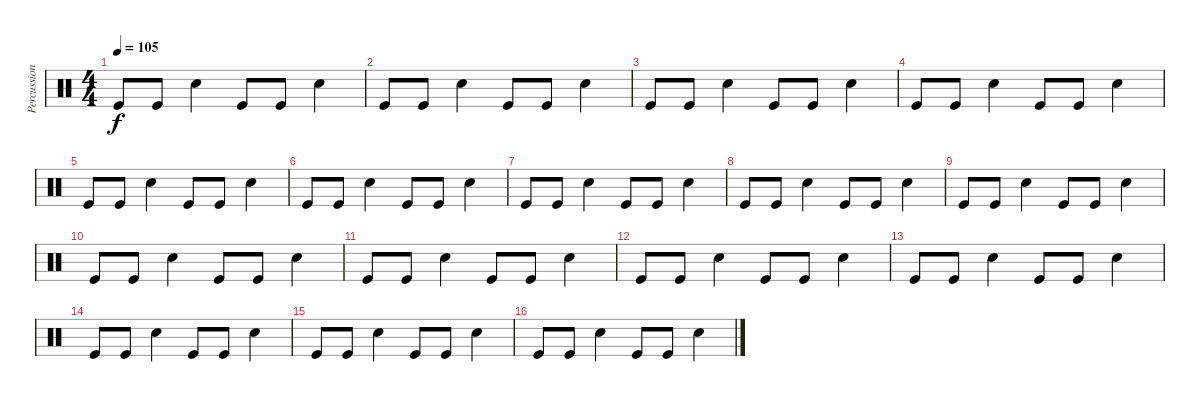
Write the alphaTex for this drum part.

\track ("Percussions" "Percussion") {instrument percussion}
\staff {score}
\articulation defaults
\ts (4 4)
\tempo 105
\clef neutral
\ks c "Kick (hit)".8{dy f} "Kick (hit)".8 "Electric Snare (hit)".4 "Kick (hit)".8 "Kick (hit)".8 "Electric Snare (hit)".4
|
"Kick (hit)".8 "Kick (hit)".8 "Electric Snare (hit)".4 "Kick (hit)".8 "Kick (hit)".8 "Electric Snare (hit)".4 |
"Kick (hit)".8 "Kick (hit)".8 "Electric Snare (hit)".4 "Kick (hit)".8 "Kick (hit)".8 "Electric Snare (hit)".4 |
"Kick (hit)".8 "Kick (hit)".8 "Electric Snare (hit)".4 "Kick (hit)".8 "Kick (hit)".8 "Electric Snare (hit)".4 |
"Kick (hit)".8 "Kick (hit)".8 "Electric Snare (hit)".4 "Kick (hit)".8 "Kick (hit)".8 "Electric Snare (hit)".4 |
"Kick (hit)".8 "Kick (hit)".8 "Electric Snare (hit)".4 "Kick (hit)".8 "Kick (hit)".8 "Electric Snare (hit)".4 |
"Kick (hit)".8 "Kick (hit)".8 "Electric Snare (hit)".4 "Kick (hit)".8 "Kick (hit)".8 "Electric Snare (hit)".4 |
"Kick (hit)".8 "Kick (hit)".8 "Electric Snare (hit)".4 "Kick (hit)".8 "Kick (hit)".8 "Electric Snare (hit)".4 |
"Kick (hit)".8 "Kick (hit)".8 "Electric Snare (hit)".4 "Kick (hit)".8 "Kick (hit)".8 "Electric Snare (hit)".4 |
"Kick (hit)".8 "Kick (hit)".8 "Electric Snare (hit)".4 "Kick (hit)".8 "Kick (hit)".8 "Electric Snare (hit)".4 |
"Kick (hit)".8 "Kick (hit)".8 "Electric Snare (hit)".4 "Kick (hit)".8 "Kick (hit)".8 "Electric Snare (hit)".4 |
"Kick (hit)".8 "Kick (hit)".8 "Electric Snare (hit)".4 "Kick (hit)".8 "Kick (hit)".8 "Electric Snare (hit)".4 |
"Kick (hit)".8 "Kick (hit)".8 "Electric Snare (hit)".4 "Kick (hit)".8 "Kick (hit)".8 "Electric Snare (hit)".4 |
"Kick (hit)".8 "Kick (hit)".8 "Electric Snare (hit)".4 "Kick (hit)".8 "Kick (hit)".8 "Electric Snare (hit)".4 |
"Kick (hit)".8 "Kick (hit)".8 "Electric Snare (hit)".4 "Kick (hit)".8 "Kick (hit)".8 "Electric Snare (hit)".4 |
"Kick (hit)".8 "Kick (hit)".8 "Electric Snare (hit)".4 "Kick (hit)".8 "Kick (hit)".8 "Electric Snare (hit)".4
